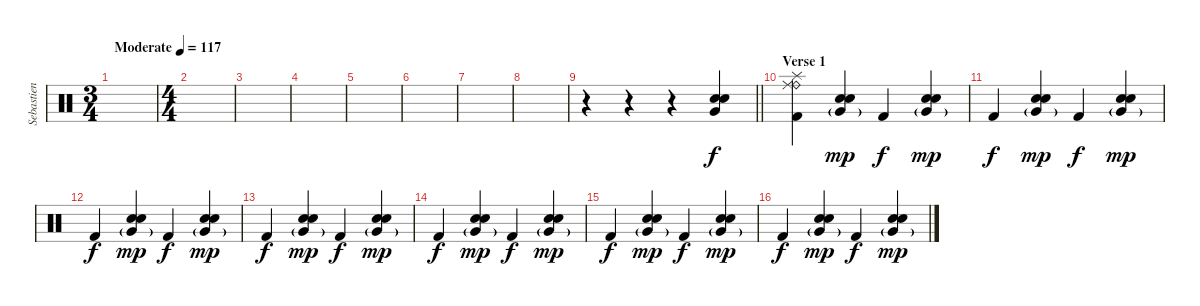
\track ("Sebastien Grainger Drums" "Sebastien ") {instrument percussion}
\staff {score}
\articulation defaults
\ts (3 4)
\tempo (117 "Moderate")
\clef neutral
\ks c
|
\ts (4 4)
|
|
|
|
|
|
|
\barLineRight lightlight
r.4 r.4 r.4 ("Snare (hit) 2" "Electric Snare (hit)" "Very Low Tom (hit)").4 |
\section ("" "Verse 1")
("Splash (hit)" "Ride (bell)" "Ride (middle)" "Kick (hit) 2").4 ("Very Low Tom (hit)"{g} "Electric Snare (hit)" "Snare (hit) 2").4{dy mp} "Kick (hit) 2".4{dy f} ("Very Low Tom (hit)"{g} "Electric Snare (hit)" "Snare (hit) 2").4{dy mp} |
"Kick (hit) 2".4{dy f} ("Very Low Tom (hit)"{g} "Electric Snare (hit)" "Snare (hit) 2").4{dy mp} "Kick (hit) 2".4{dy f} ("Very Low Tom (hit)"{g} "Electric Snare (hit)" "Snare (hit) 2").4{dy mp} |
"Kick (hit) 2".4{dy f} ("Very Low Tom (hit)"{g} "Electric Snare (hit)" "Snare (hit) 2").4{dy mp} "Kick (hit) 2".4{dy f} ("Very Low Tom (hit)"{g} "Electric Snare (hit)" "Snare (hit) 2").4{dy mp} |
"Kick (hit) 2".4{dy f} ("Very Low Tom (hit)"{g} "Electric Snare (hit)" "Snare (hit) 2").4{dy mp} "Kick (hit) 2".4{dy f} ("Very Low Tom (hit)"{g} "Electric Snare (hit)" "Snare (hit) 2").4{dy mp} |
"Kick (hit) 2".4{dy f} ("Very Low Tom (hit)"{g} "Electric Snare (hit)" "Snare (hit) 2").4{dy mp} "Kick (hit) 2".4{dy f} ("Very Low Tom (hit)"{g} "Electric Snare (hit)" "Snare (hit) 2").4{dy mp} |
"Kick (hit) 2".4{dy f} ("Very Low Tom (hit)"{g} "Electric Snare (hit)" "Snare (hit) 2").4{dy mp} "Kick (hit) 2".4{dy f} ("Very Low Tom (hit)"{g} "Electric Snare (hit)" "Snare (hit) 2").4{dy mp} |
"Kick (hit) 2".4{dy f} ("Very Low Tom (hit)"{g} "Electric Snare (hit)" "Snare (hit) 2").4{dy mp} "Kick (hit) 2".4{dy f} ("Very Low Tom (hit)"{g} "Electric Snare (hit)" "Snare (hit) 2").4{dy mp}
